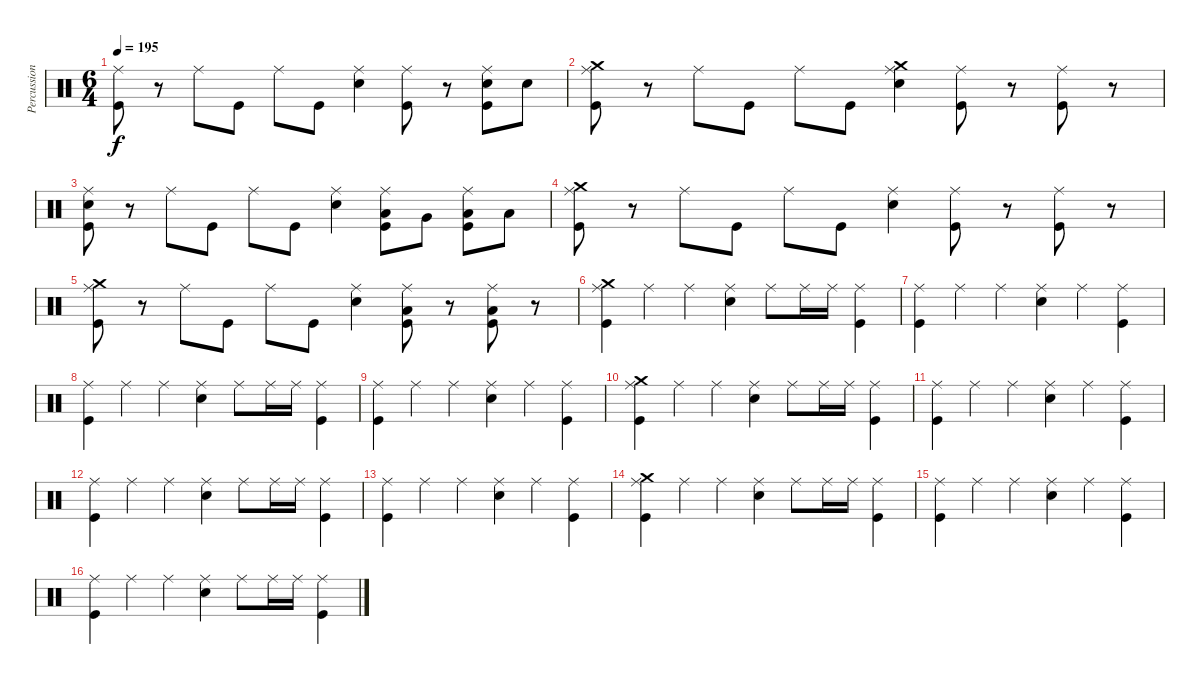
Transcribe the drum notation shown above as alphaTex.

\track ("Percussion" "Percussion") {instrument percussion}
\staff {score}
\articulation defaults
\ts (6 4)
\tempo 195
\clef neutral
\ks c
("Ride (middle)" "Kick (hit)").8{dy f} r.8 "Ride (middle)".8 "Kick (hit)".8 "Ride (middle)".8 "Kick (hit)".8 ("Ride (middle)" "Electric Snare (hit)").4 ("Ride (middle)" "Kick (hit)").8 r.8 ("Ride (middle)" "Electric Snare (hit)" "Kick (hit)").8 "Electric Snare (hit)".8 |
("Crash medium (hit)" "Ride (middle)" "Kick (hit)").8 r.8 "Ride (middle)".8 "Kick (hit)".8 "Ride (middle)".8 "Kick (hit)".8 ("Crash medium (hit)" "Ride (middle)" "Electric Snare (hit)").4 ("Ride (middle)" "Kick (hit)").8 r.8 ("Ride (middle)" "Kick (hit)").8 r.8 |
("Snare (hit)" "Ride (middle)" "Kick (hit)").8 r.8 "Ride (middle)".8 "Kick (hit)".8 "Ride (middle)".8 "Kick (hit)".8 ("Ride (middle)" "Electric Snare (hit)").4 ("Low Tom (hit)" "Ride (middle)" "Kick (hit)").8 "Very Low Tom (hit)".8 ("Low Floor Tom (hit)" "Ride (middle)" "Kick (hit)").8 "Low Floor Tom (hit)".8 |
("Crash medium (hit)" "Ride (middle)" "Kick (hit)").8 r.8 "Ride (middle)".8 "Kick (hit)".8 "Ride (middle)".8 "Kick (hit)".8 ("Ride (middle)" "Electric Snare (hit)").4 ("Ride (middle)" "Kick (hit)").8 r.8 ("Ride (middle)" "Kick (hit)").8 r.8 |
("Crash medium (hit)" "Ride (middle)" "Kick (hit)").8 r.8 "Ride (middle)".8 "Kick (hit)".8 "Ride (middle)".8 "Kick (hit)".8 ("Ride (middle)" "Electric Snare (hit)").4 ("Low Floor Tom (hit)" "Ride (middle)" "Kick (hit)").8 r.8 ("Low Floor Tom (hit)" "Ride (middle)" "Kick (hit)").8 r.8 |
("Crash medium (hit)" "Ride (middle)" "Kick (hit)").4 "Ride (middle)".4 "Ride (middle)".4 ("Ride (middle)" "Electric Snare (hit)").4 "Ride (middle)".8 "Ride (middle)".16 "Ride (middle)".16 ("Ride (middle)" "Kick (hit)").4 |
("Ride (middle)" "Kick (hit)").4 "Ride (middle)".4 "Ride (middle)".4 ("Ride (middle)" "Electric Snare (hit)").4 "Ride (middle)".4 ("Ride (middle)" "Kick (hit)").4 |
("Ride (middle)" "Kick (hit)").4 "Ride (middle)".4 "Ride (middle)".4 ("Ride (middle)" "Electric Snare (hit)").4 "Ride (middle)".8 "Ride (middle)".16 "Ride (middle)".16 ("Ride (middle)" "Kick (hit)").4 |
("Ride (middle)" "Kick (hit)").4 "Ride (middle)".4 "Ride (middle)".4 ("Ride (middle)" "Electric Snare (hit)").4 "Ride (middle)".4 ("Ride (middle)" "Kick (hit)").4 |
("Crash medium (hit)" "Ride (middle)" "Kick (hit)").4 "Ride (middle)".4 "Ride (middle)".4 ("Ride (middle)" "Electric Snare (hit)").4 "Ride (middle)".8 "Ride (middle)".16 "Ride (middle)".16 ("Ride (middle)" "Kick (hit)").4 |
("Ride (middle)" "Kick (hit)").4 "Ride (middle)".4 "Ride (middle)".4 ("Ride (middle)" "Electric Snare (hit)").4 "Ride (middle)".4 ("Ride (middle)" "Kick (hit)").4 |
("Ride (middle)" "Kick (hit)").4 "Ride (middle)".4 "Ride (middle)".4 ("Ride (middle)" "Electric Snare (hit)").4 "Ride (middle)".8 "Ride (middle)".16 "Ride (middle)".16 ("Ride (middle)" "Kick (hit)").4 |
("Ride (middle)" "Kick (hit)").4 "Ride (middle)".4 "Ride (middle)".4 ("Ride (middle)" "Electric Snare (hit)").4 "Ride (middle)".4 ("Ride (middle)" "Kick (hit)").4 |
("Crash medium (hit)" "Ride (middle)" "Kick (hit)").4 "Ride (middle)".4 "Ride (middle)".4 ("Ride (middle)" "Electric Snare (hit)").4 "Ride (middle)".8 "Ride (middle)".16 "Ride (middle)".16 ("Ride (middle)" "Kick (hit)").4 |
("Ride (middle)" "Kick (hit)").4 "Ride (middle)".4 "Ride (middle)".4 ("Ride (middle)" "Electric Snare (hit)").4 "Ride (middle)".4 ("Ride (middle)" "Kick (hit)").4 |
("Ride (middle)" "Kick (hit)").4 "Ride (middle)".4 "Ride (middle)".4 ("Ride (middle)" "Electric Snare (hit)").4 "Ride (middle)".8 "Ride (middle)".16 "Ride (middle)".16 ("Ride (middle)" "Kick (hit)").4
